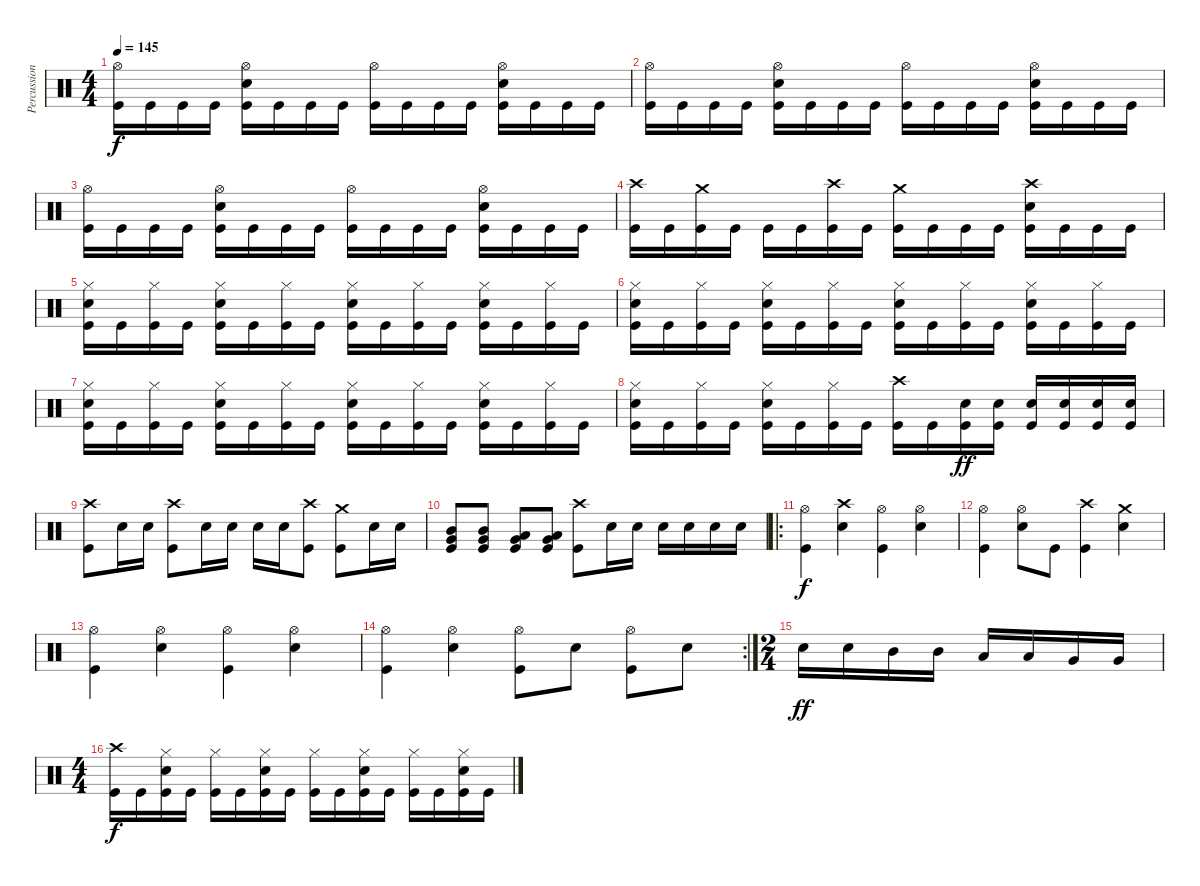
\track ("Percussions" "Percussion") {instrument percussion}
\staff {score}
\articulation defaults
\ts (4 4)
\tempo 145
\clef neutral
\ks c
("Hi-Hat (open)" "Kick (hit)").16{dy f} "Kick (hit)".16 "Kick (hit)".16 "Kick (hit)".16 ("Hi-Hat (open)" "Snare (hit) 2" "Kick (hit)").16 "Kick (hit)".16 "Kick (hit)".16 "Kick (hit)".16 ("Hi-Hat (open)" "Kick (hit)").16 "Kick (hit)".16 "Kick (hit)".16 "Kick (hit)".16 ("Hi-Hat (open)" "Snare (hit) 2" "Kick (hit)").16 "Kick (hit)".16 "Kick (hit)".16 "Kick (hit)".16 |
("Hi-Hat (open)" "Kick (hit)").16 "Kick (hit)".16 "Kick (hit)".16 "Kick (hit)".16 ("Hi-Hat (open)" "Snare (hit) 2" "Kick (hit)").16 "Kick (hit)".16 "Kick (hit)".16 "Kick (hit)".16 ("Hi-Hat (open)" "Kick (hit)").16 "Kick (hit)".16 "Kick (hit)".16 "Kick (hit)".16 ("Hi-Hat (open)" "Snare (hit) 2" "Kick (hit)").16 "Kick (hit)".16 "Kick (hit)".16 "Kick (hit)".16 |
("Hi-Hat (open)" "Kick (hit)").16 "Kick (hit)".16 "Kick (hit)".16 "Kick (hit)".16 ("Hi-Hat (open)" "Snare (hit) 2" "Kick (hit)").16 "Kick (hit)".16 "Kick (hit)".16 "Kick (hit)".16 ("Hi-Hat (open)" "Kick (hit)").16 "Kick (hit)".16 "Kick (hit)".16 "Kick (hit)".16 ("Hi-Hat (open)" "Snare (hit) 2" "Kick (hit)").16 "Kick (hit)".16 "Kick (hit)".16 "Kick (hit)".16 |
("Crash high (hit)" "Kick (hit)").16 "Kick (hit)".16 ("Crash medium (hit)" "Kick (hit)").16 "Kick (hit)".16 "Kick (hit)".16 "Kick (hit)".16 ("Crash high (hit)" "Kick (hit)").16 "Kick (hit)".16 ("Crash medium (hit)" "Kick (hit)").16 "Kick (hit)".16 "Kick (hit)".16 "Kick (hit)".16 ("Crash high (hit)" "Snare (hit) 2" "Kick (hit)").16 "Kick (hit)".16 "Kick (hit)".16 "Kick (hit)".16 |
("Hi-Hat (closed)" "Snare (hit) 2" "Kick (hit)").16 "Kick (hit)".16 ("Hi-Hat (closed)" "Kick (hit)").16 "Kick (hit)".16 ("Hi-Hat (closed)" "Snare (hit) 2" "Kick (hit)").16 "Kick (hit)".16 ("Hi-Hat (closed)" "Kick (hit)").16 "Kick (hit)".16 ("Hi-Hat (closed)" "Snare (hit) 2" "Kick (hit)").16 "Kick (hit)".16 ("Hi-Hat (closed)" "Kick (hit)").16 "Kick (hit)".16 ("Hi-Hat (closed)" "Snare (hit) 2" "Kick (hit)").16 "Kick (hit)".16 ("Hi-Hat (closed)" "Kick (hit)").16 "Kick (hit)".16 |
("Hi-Hat (closed)" "Snare (hit) 2" "Kick (hit)").16 "Kick (hit)".16 ("Hi-Hat (closed)" "Kick (hit)").16 "Kick (hit)".16 ("Hi-Hat (closed)" "Snare (hit) 2" "Kick (hit)").16 "Kick (hit)".16 ("Hi-Hat (closed)" "Kick (hit)").16 "Kick (hit)".16 ("Hi-Hat (closed)" "Snare (hit) 2" "Kick (hit)").16 "Kick (hit)".16 ("Hi-Hat (closed)" "Kick (hit)").16 "Kick (hit)".16 ("Hi-Hat (closed)" "Snare (hit) 2" "Kick (hit)").16 "Kick (hit)".16 ("Hi-Hat (closed)" "Kick (hit)").16 "Kick (hit)".16 |
("Hi-Hat (closed)" "Snare (hit) 2" "Kick (hit)").16 "Kick (hit)".16 ("Hi-Hat (closed)" "Kick (hit)").16 "Kick (hit)".16 ("Hi-Hat (closed)" "Snare (hit) 2" "Kick (hit)").16 "Kick (hit)".16 ("Hi-Hat (closed)" "Kick (hit)").16 "Kick (hit)".16 ("Hi-Hat (closed)" "Snare (hit) 2" "Kick (hit)").16 "Kick (hit)".16 ("Hi-Hat (closed)" "Kick (hit)").16 "Kick (hit)".16 ("Hi-Hat (closed)" "Snare (hit) 2" "Kick (hit)").16 "Kick (hit)".16 ("Hi-Hat (closed)" "Kick (hit)").16 "Kick (hit)".16 |
("Hi-Hat (closed)" "Snare (hit) 2" "Kick (hit)").16 "Kick (hit)".16 ("Hi-Hat (closed)" "Kick (hit)").16 "Kick (hit)".16 ("Hi-Hat (closed)" "Snare (hit) 2" "Kick (hit)").16 "Kick (hit)".16 ("Hi-Hat (closed)" "Kick (hit)").16 "Kick (hit)".16 ("Crash high (hit)" "Kick (hit)").16 "Kick (hit)".16 ("Snare (hit) 2" "Kick (hit)").16{dy ff} ("Snare (hit) 2" "Kick (hit)").16 ("Snare (hit) 2" "Kick (hit)").16 ("Snare (hit) 2" "Kick (hit)").16 ("Snare (hit) 2" "Kick (hit)").16 ("Snare (hit) 2" "Kick (hit)").16 |
("Crash high (hit)" "Kick (hit)").8 "Snare (hit) 2".16 "Snare (hit) 2".16 ("Crash high (hit)" "Kick (hit)").8 "Snare (hit) 2".16 "Snare (hit) 2".16 "Snare (hit) 2".16 "Snare (hit) 2".16 ("Crash high (hit)" "Kick (hit)").8 ("Crash medium (hit)" "Kick (hit)").8 "Snare (hit) 2".16 "Snare (hit) 2".16 |
("Mid Tom (hit)" "Very Low Tom (hit)" "Kick (hit)").8 ("Mid Tom (hit)" "Very Low Tom (hit)" "Kick (hit)").8 ("Low Tom (hit)" "Very Low Tom (hit)" "Kick (hit)").8 ("Low Tom (hit)" "Very Low Tom (hit)" "Kick (hit)").8 ("Crash high (hit)" "Kick (hit)").8 "Snare (hit) 2".16 "Snare (hit) 2".16 "Snare (hit) 2".16 "Snare (hit) 2".16 "Snare (hit) 2".16 "Snare (hit) 2".16 |
\ro
("Hi-Hat (open)" "Kick (hit)").4{dy f} ("Crash high (hit)" "Snare (hit) 2").4 ("Hi-Hat (open)" "Kick (hit)").4 ("Hi-Hat (open)" "Snare (hit) 2").4 |
("Hi-Hat (open)" "Kick (hit)").4 ("Hi-Hat (open)" "Snare (hit) 2").8 "Kick (hit)".8 ("Crash high (hit)" "Kick (hit)").4 ("Crash medium (hit)" "Snare (hit) 2").4 |
("Hi-Hat (open)" "Kick (hit)").4 ("Hi-Hat (open)" "Snare (hit) 2").4 ("Hi-Hat (open)" "Kick (hit)").4 ("Hi-Hat (open)" "Snare (hit) 2").4 |
\rc 2
("Hi-Hat (open)" "Kick (hit)").4 ("Hi-Hat (open)" "Snare (hit) 2").4 ("Hi-Hat (open)" "Kick (hit)").8 "Snare (hit) 2".8 ("Hi-Hat (open)" "Kick (hit)").8 "Snare (hit) 2".8 |
\ts (2 4)
"Snare (hit) 2".16{dy ff} "Snare (hit) 2".16 "Mid Tom (hit)".16 "Mid Tom (hit)".16 "Low Tom (hit)".16 "Low Tom (hit)".16 "Very Low Tom (hit)".16 "Very Low Tom (hit)".16 |
\ts (4 4)
("Crash high (hit)" "Kick (hit)").16{dy f} "Kick (hit)".16 ("Hi-Hat (closed)" "Snare (hit) 2" "Kick (hit)").16 "Kick (hit)".16 ("Hi-Hat (closed)" "Kick (hit)").16 "Kick (hit)".16 ("Hi-Hat (closed)" "Snare (hit) 2" "Kick (hit)").16 "Kick (hit)".16 ("Hi-Hat (closed)" "Kick (hit)").16 "Kick (hit)".16 ("Hi-Hat (closed)" "Snare (hit) 2" "Kick (hit)").16 "Kick (hit)".16 ("Hi-Hat (closed)" "Kick (hit)").16 "Kick (hit)".16 ("Hi-Hat (closed)" "Snare (hit) 2" "Kick (hit)").16 "Kick (hit)".16
